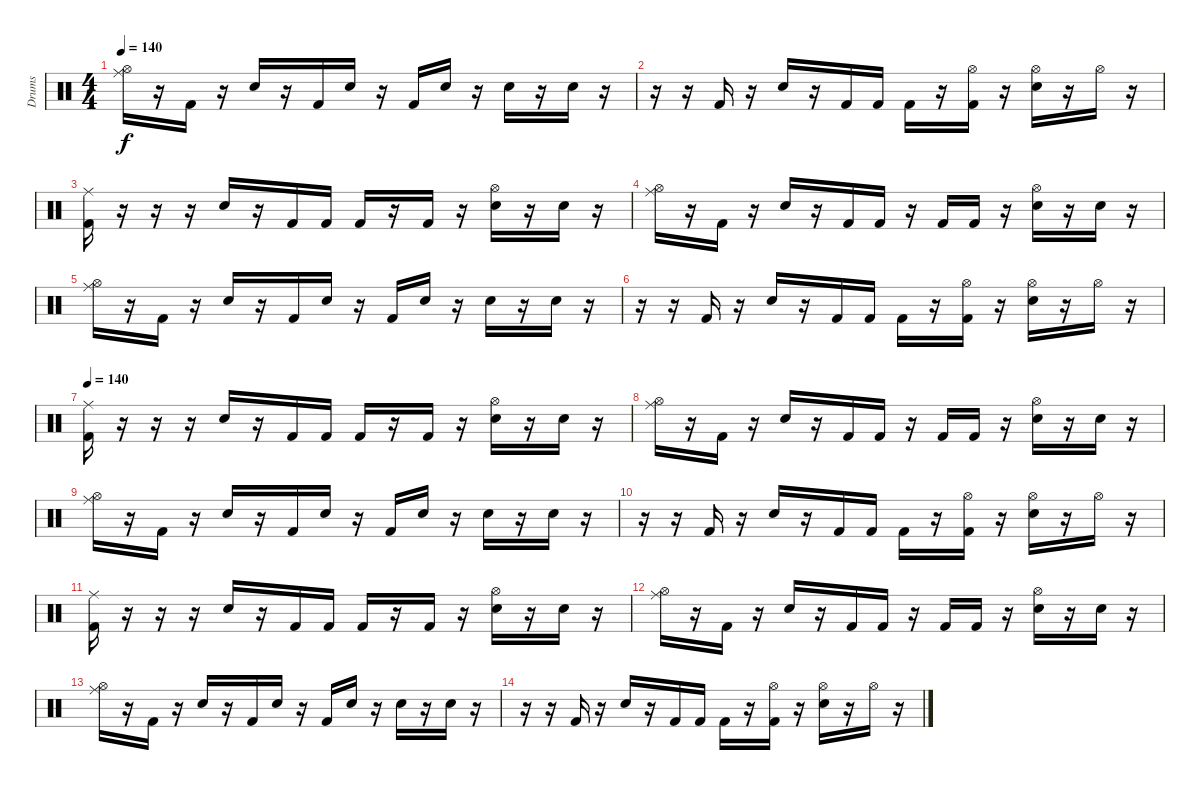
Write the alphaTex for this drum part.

\track ("Drums" "Drums") {instrument percussion}
\staff {score}
\articulation defaults
\ts (4 4)
\tempo 140
\clef neutral
\ks c
("Ride (middle)" "Hi-Hat (open)").16{dy f} r.16 "Kick (hit) 2".16 r.16 "Electric Snare (hit)".16 r.16 "Kick (hit) 2".16 "Electric Snare (hit)".16 r.16 "Kick (hit) 2".16 "Electric Snare (hit)".16 r.16 "Electric Snare (hit)".16 r.16 "Electric Snare (hit)".16 r.16 |
r.16 r.16 "Kick (hit) 2".16 r.16 "Electric Snare (hit)".16 r.16 "Kick (hit) 2".16 "Kick (hit) 2".16 "Kick (hit) 2".16 r.16 ("Hi-Hat (open)" "Kick (hit) 2").16 r.16 ("Hi-Hat (open)" "Electric Snare (hit)").16 r.16 "Hi-Hat (open)".16 r.16 |
("Ride (middle)" "Kick (hit) 2").16 r.16 r.16 r.16 "Electric Snare (hit)".16 r.16 "Kick (hit) 2".16 "Kick (hit) 2".16 "Kick (hit) 2".16 r.16 "Kick (hit) 2".16 r.16 ("Hi-Hat (open)" "Electric Snare (hit)").16 r.16 "Electric Snare (hit)".16 r.16 |
("Ride (middle)" "Hi-Hat (open)").16 r.16 "Kick (hit) 2".16 r.16 "Electric Snare (hit)".16 r.16 "Kick (hit) 2".16 "Kick (hit) 2".16 r.16 "Kick (hit) 2".16 "Kick (hit) 2".16 r.16 ("Hi-Hat (open)" "Electric Snare (hit)").16 r.16 "Electric Snare (hit)".16 r.16 |
("Ride (middle)" "Hi-Hat (open)").16 r.16 "Kick (hit) 2".16 r.16 "Electric Snare (hit)".16 r.16 "Kick (hit) 2".16 "Electric Snare (hit)".16 r.16 "Kick (hit) 2".16 "Electric Snare (hit)".16 r.16 "Electric Snare (hit)".16 r.16 "Electric Snare (hit)".16 r.16 |
r.16 r.16 "Kick (hit) 2".16 r.16 "Electric Snare (hit)".16 r.16 "Kick (hit) 2".16 "Kick (hit) 2".16 "Kick (hit) 2".16 r.16 ("Hi-Hat (open)" "Kick (hit) 2").16 r.16 ("Hi-Hat (open)" "Electric Snare (hit)").16 r.16 "Hi-Hat (open)".16 r.16 |
\tempo 140
("Ride (middle)" "Kick (hit) 2").16 r.16 r.16 r.16 "Electric Snare (hit)".16 r.16 "Kick (hit) 2".16 "Kick (hit) 2".16 "Kick (hit) 2".16 r.16 "Kick (hit) 2".16 r.16 ("Hi-Hat (open)" "Electric Snare (hit)").16 r.16 "Electric Snare (hit)".16 r.16 |
("Ride (middle)" "Hi-Hat (open)").16 r.16 "Kick (hit) 2".16 r.16 "Electric Snare (hit)".16 r.16 "Kick (hit) 2".16 "Kick (hit) 2".16 r.16 "Kick (hit) 2".16 "Kick (hit) 2".16 r.16 ("Hi-Hat (open)" "Electric Snare (hit)").16 r.16 "Electric Snare (hit)".16 r.16 |
("Ride (middle)" "Hi-Hat (open)").16 r.16 "Kick (hit) 2".16 r.16 "Electric Snare (hit)".16 r.16 "Kick (hit) 2".16 "Electric Snare (hit)".16 r.16 "Kick (hit) 2".16 "Electric Snare (hit)".16 r.16 "Electric Snare (hit)".16 r.16 "Electric Snare (hit)".16 r.16 |
r.16 r.16 "Kick (hit) 2".16 r.16 "Electric Snare (hit)".16 r.16 "Kick (hit) 2".16 "Kick (hit) 2".16 "Kick (hit) 2".16 r.16 ("Hi-Hat (open)" "Kick (hit) 2").16 r.16 ("Hi-Hat (open)" "Electric Snare (hit)").16 r.16 "Hi-Hat (open)".16 r.16 |
("Ride (middle)" "Kick (hit) 2").16 r.16 r.16 r.16 "Electric Snare (hit)".16 r.16 "Kick (hit) 2".16 "Kick (hit) 2".16 "Kick (hit) 2".16 r.16 "Kick (hit) 2".16 r.16 ("Hi-Hat (open)" "Electric Snare (hit)").16 r.16 "Electric Snare (hit)".16 r.16 |
("Ride (middle)" "Hi-Hat (open)").16 r.16 "Kick (hit) 2".16 r.16 "Electric Snare (hit)".16 r.16 "Kick (hit) 2".16 "Kick (hit) 2".16 r.16 "Kick (hit) 2".16 "Kick (hit) 2".16 r.16 ("Hi-Hat (open)" "Electric Snare (hit)").16 r.16 "Electric Snare (hit)".16 r.16 |
("Ride (middle)" "Hi-Hat (open)").16 r.16 "Kick (hit) 2".16 r.16 "Electric Snare (hit)".16 r.16 "Kick (hit) 2".16 "Electric Snare (hit)".16 r.16 "Kick (hit) 2".16 "Electric Snare (hit)".16 r.16 "Electric Snare (hit)".16 r.16 "Electric Snare (hit)".16 r.16 |
r.16 r.16 "Kick (hit) 2".16 r.16 "Electric Snare (hit)".16 r.16 "Kick (hit) 2".16 "Kick (hit) 2".16 "Kick (hit) 2".16 r.16 ("Hi-Hat (open)" "Kick (hit) 2").16 r.16 ("Hi-Hat (open)" "Electric Snare (hit)").16 r.16 "Hi-Hat (open)".16 r.16
